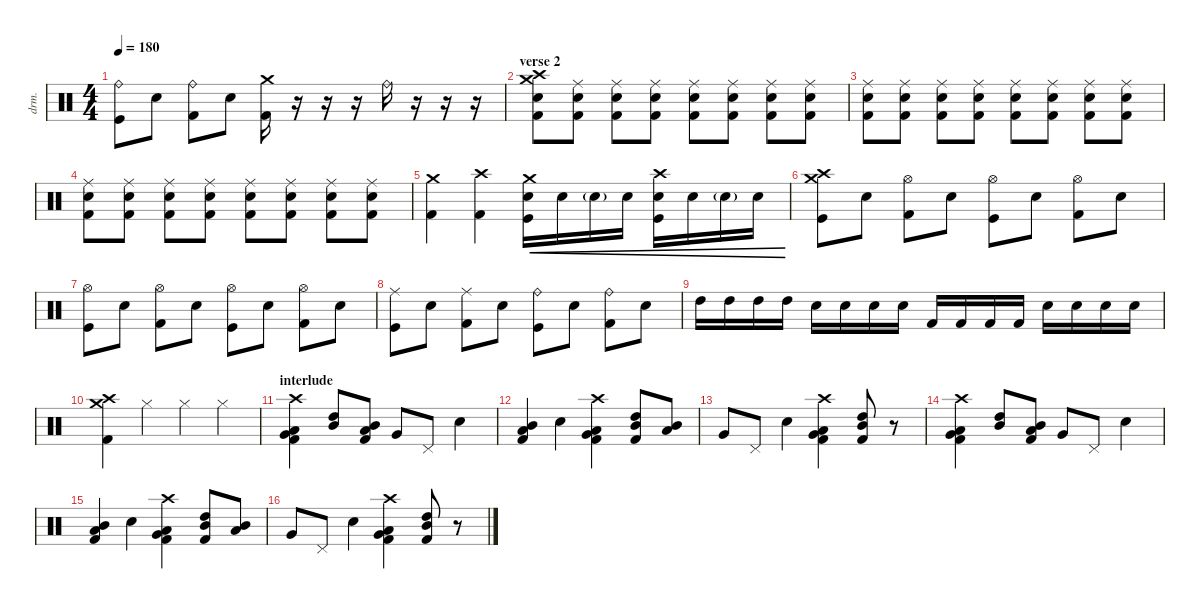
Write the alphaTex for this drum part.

\defaultSystemsLayout 4
\hideDynamics
\bracketExtendMode nobrackets
\otherSystemsTrackNameOrientation horizontal
\track ("Joosep" "drm.") {instrument percussion}
\staff {score}
\articulation defaults
\ts (4 4)
\tempo 180
\clef neutral
\ks c
("Kick (hit)" "Ride (bell)").8{dy mf beam Down} "Snare (hit) 2".8{beam Down} ("Kick (hit) 2" "Ride (bell)").8{beam Down} "Snare (hit) 2".8{beam Down} ("Kick (hit) 2" "Crash medium (hit)").16{beam Down} r.16{beam Down} r.16{beam Down} r.16{beam Down} "Ride (bell)".16{beam Down} r.16{beam Down} r.16{beam Down} r.16{beam Down} |
\section ("" "verse 2")
("Crash high (hit)" "Crash medium (hit)" "Snare (hit) 2" "Kick (hit) 2").8{beam Down} ("Snare (hit) 2" "Ride (middle)" "Kick (hit) 2").8{beam Down} ("Kick (hit) 2" "Ride (middle)" "Snare (hit) 2").8{beam Down} ("Snare (hit) 2" "Ride (middle)" "Kick (hit) 2").8{beam Down} ("Ride (middle)" "Kick (hit) 2" "Snare (hit) 2").8{beam Down} ("Snare (hit) 2" "Ride (middle)" "Kick (hit) 2").8{beam Down} ("Kick (hit) 2" "Ride (middle)" "Snare (hit) 2").8{beam Down} ("Snare (hit) 2" "Ride (middle)" "Kick (hit) 2").8{beam Down} |
("Snare (hit) 2" "Kick (hit) 2" "Ride (middle)").8{beam Down} ("Snare (hit) 2" "Ride (middle)" "Kick (hit) 2").8{beam Down} ("Kick (hit) 2" "Ride (middle)" "Snare (hit) 2").8{beam Down} ("Snare (hit) 2" "Ride (middle)" "Kick (hit) 2").8{beam Down} ("Ride (middle)" "Kick (hit) 2" "Snare (hit) 2").8{beam Down} ("Snare (hit) 2" "Ride (middle)" "Kick (hit) 2").8{beam Down} ("Kick (hit) 2" "Ride (middle)" "Snare (hit) 2").8{beam Down} ("Snare (hit) 2" "Ride (middle)" "Kick (hit) 2").8{beam Down} |
("Snare (hit) 2" "Kick (hit) 2" "Ride (middle)").8{beam Down} ("Snare (hit) 2" "Ride (middle)" "Kick (hit) 2").8{beam Down} ("Kick (hit) 2" "Ride (middle)" "Snare (hit) 2").8{beam Down} ("Snare (hit) 2" "Ride (middle)" "Kick (hit) 2").8{beam Down} ("Ride (middle)" "Kick (hit) 2" "Snare (hit) 2").8{beam Down} ("Snare (hit) 2" "Ride (middle)" "Kick (hit) 2").8{beam Down} ("Kick (hit) 2" "Ride (middle)" "Snare (hit) 2").8{beam Down} ("Snare (hit) 2" "Ride (middle)" "Kick (hit) 2").8{beam Down} |
("Kick (hit) 2" "Crash medium (hit)").4{beam Down} ("Kick (hit) 2" "Crash high (hit)").4{beam Down} ("Snare (hit) 2" "Kick (hit)" "Crash medium (hit)").16{cre beam Down} "Snare (hit) 2".16{cre beam Down} "Snare (hit) 2"{g}.16{cre beam Down} "Snare (hit) 2".16{cre beam Down} ("Snare (hit) 2" "Kick (hit)" "Crash high (hit)").16{cre beam Down} "Snare (hit) 2".16{cre beam Down} "Snare (hit) 2"{g}.16{cre beam Down} "Snare (hit) 2".16{cre beam Down} |
("Kick (hit)" "Crash high (hit)" "Crash medium (hit)").8{beam Down} "Snare (hit) 2".8{beam Down} ("Hi-Hat (open)" "Kick (hit) 2").8{beam Down} "Snare (hit) 2".8{beam Down} ("Kick (hit)" "Hi-Hat (open)").8{beam Down} "Snare (hit) 2".8{beam Down} ("Hi-Hat (open)" "Kick (hit) 2").8{beam Down} "Snare (hit) 2".8{beam Down} |
("Kick (hit)" "Hi-Hat (open)").8{beam Down} "Snare (hit) 2".8{beam Down} ("Hi-Hat (open)" "Kick (hit) 2").8{beam Down} "Snare (hit) 2".8{beam Down} ("Kick (hit)" "Hi-Hat (open)").8{beam Down} "Snare (hit) 2".8{beam Down} ("Hi-Hat (open)" "Kick (hit) 2").8{beam Down} "Snare (hit) 2".8{beam Down} |
("Kick (hit)" "Ride (middle)").8{beam Down} "Snare (hit) 2".8{beam Down} ("Kick (hit) 2" "Ride (middle)").8{beam Down} "Snare (hit) 2".8{beam Down} ("Kick (hit)" "Ride (bell)").8{beam Down} "Snare (hit) 2".8{beam Down} ("Kick (hit) 2" "Ride (bell)").8{beam Down} "Snare (hit) 2".8{beam Down} |
"High Tom (hit)".16{beam Down} "High Tom (hit)".16{beam Down} "High Tom (hit)".16{beam Down} "High Tom (hit)".16{beam Down} "Snare (hit) 2".16{beam Down} "Snare (hit) 2".16{beam Down} "Snare (hit) 2".16{beam Down} "Snare (hit) 2".16{beam Down} "Kick (hit) 2".16{beam Up} "Kick (hit) 2".16{beam Up} "Kick (hit) 2".16{beam Up} "Kick (hit) 2".16{beam Up} "Snare (hit) 2".16{beam Down} "Snare (hit) 2".16{beam Down} "Snare (hit) 2".16{beam Down} "Snare (hit) 2".16{beam Down} |
("Kick (hit) 2" "Crash high (hit)" "Crash medium (hit)").4{beam Down} "Hi-Hat (closed)".4{beam Down} "Hi-Hat (closed)".4{beam Down} "Hi-Hat (closed)".4{beam Down} |
\section ("" "interlude")
("Low Tom (hit)" "Very Low Tom (hit)" "Crash high (hit)" "Kick (hit) 2").4{beam Down} ("High Tom (hit)" "Mid Tom (hit)").8{beam Up} ("Low Tom (hit)" "Mid Tom (hit)" "Kick (hit) 2").8{beam Up} "Very Low Tom (hit)".8{beam Up} "Pedal Hi-Hat (hit)".8{beam Up} "Snare (hit) 2".4{beam Down} |
("Low Tom (hit)" "Mid Tom (hit)" "Kick (hit) 2").4{beam Up} "Snare (hit) 2".4{beam Down} ("Kick (hit) 2" "Low Tom (hit)" "Very Low Tom (hit)" "Crash high (hit)").4{beam Down} ("High Tom (hit)" "Mid Tom (hit)" "Kick (hit) 2").8{beam Up} ("Low Tom (hit)" "Mid Tom (hit)").8{beam Up} |
"Very Low Tom (hit)".8{beam Up} "Pedal Hi-Hat (hit)".8{beam Up} "Snare (hit) 2".4{beam Down} ("Kick (hit) 2" "Low Tom (hit)" "Very Low Tom (hit)" "Crash high (hit)").4{beam Down} ("High Tom (hit)" "Mid Tom (hit)" "Kick (hit) 2").8{beam Up} r.8{beam Up} |
("Low Tom (hit)" "Very Low Tom (hit)" "Crash high (hit)" "Kick (hit) 2").4{beam Down} ("High Tom (hit)" "Mid Tom (hit)").8{beam Up} ("Low Tom (hit)" "Mid Tom (hit)" "Kick (hit) 2").8{beam Up} "Very Low Tom (hit)".8{beam Up} "Pedal Hi-Hat (hit)".8{beam Up} "Snare (hit) 2".4{beam Down} |
("Low Tom (hit)" "Mid Tom (hit)" "Kick (hit) 2").4{beam Up} "Snare (hit) 2".4{beam Down} ("Kick (hit) 2" "Low Tom (hit)" "Very Low Tom (hit)" "Crash high (hit)").4{beam Down} ("High Tom (hit)" "Mid Tom (hit)" "Kick (hit) 2").8{beam Up} ("Low Tom (hit)" "Mid Tom (hit)").8{beam Up} |
"Very Low Tom (hit)".8{beam Up} "Pedal Hi-Hat (hit)".8{beam Up} "Snare (hit) 2".4{beam Down} ("Kick (hit) 2" "Low Tom (hit)" "Very Low Tom (hit)" "Crash high (hit)").4{beam Down} ("High Tom (hit)" "Mid Tom (hit)" "Kick (hit) 2").8{beam Up} r.8{beam Up}
